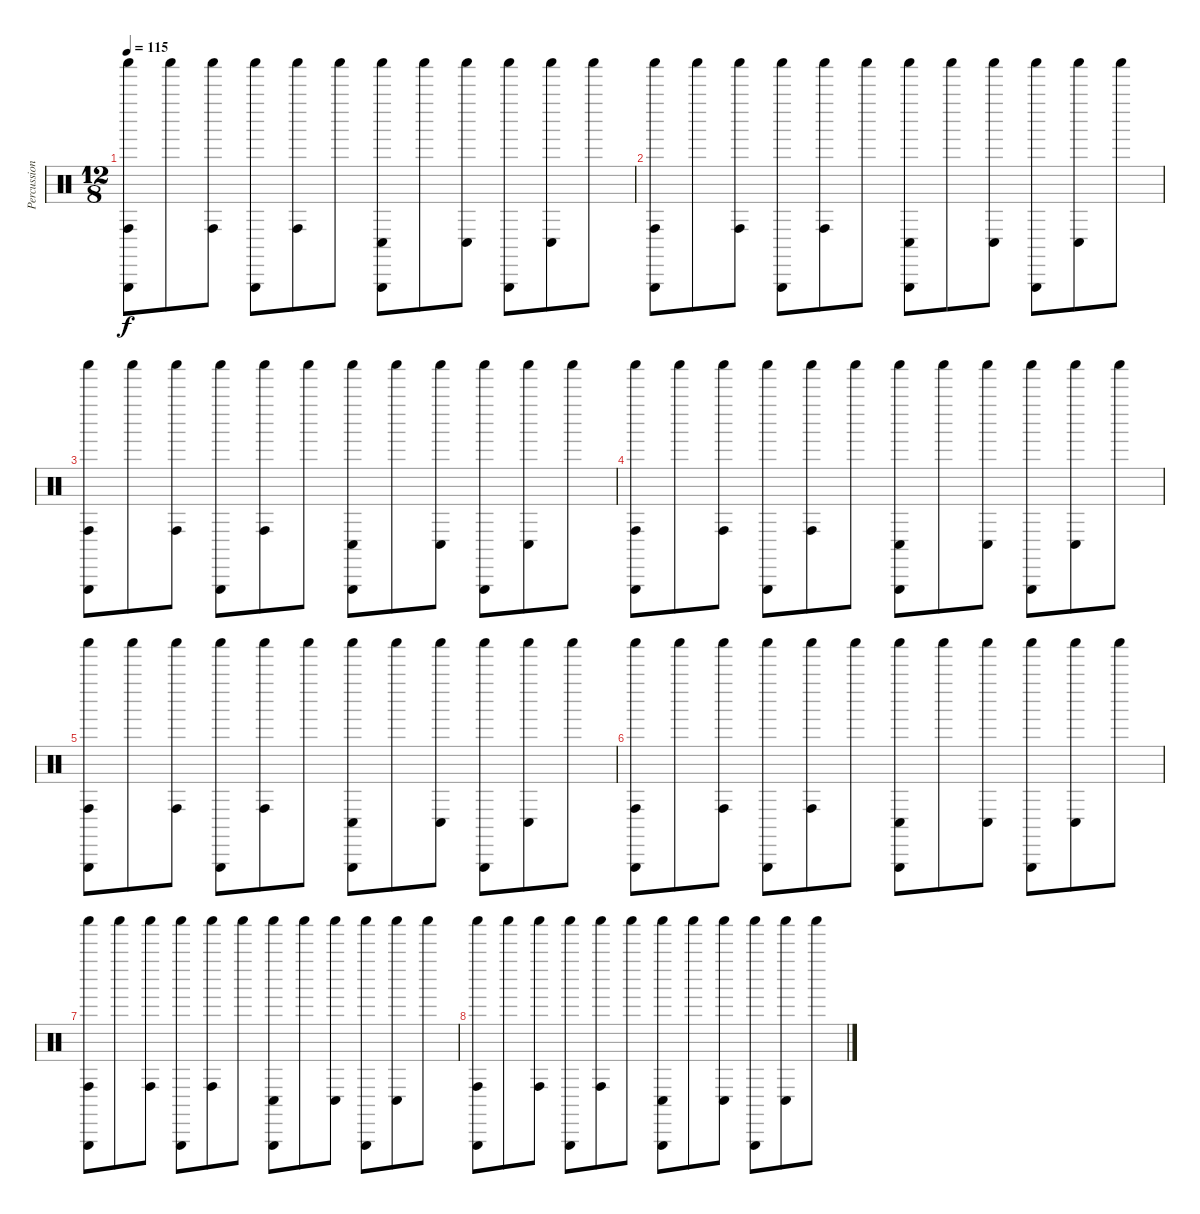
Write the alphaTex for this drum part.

\track ("Percussion" "Percussion") {instrument percussion}
\staff {score}
\articulation defaults
\ts (12 8)
\tempo 115
\clef neutral
\ks c
("Shaker (hit)" "Triangle (hit)" "Conga high (hit)").8{dy f} "Shaker (hit)".8 ("Shaker (hit)" "Conga high (hit)").8 ("Shaker (hit)" "Triangle (hit)").8 ("Shaker (hit)" "Conga high (hit)").8 "Shaker (hit)".8 ("Shaker (hit)" "Triangle (hit)" "Conga low (hit)").8 "Shaker (hit)".8 ("Shaker (hit)" "Conga low (hit)").8 ("Shaker (hit)" "Triangle (hit)").8 ("Shaker (hit)" "Conga low (hit)").8 "Shaker (hit)".8 |
("Shaker (hit)" "Triangle (hit)" "Conga high (hit)").8 "Shaker (hit)".8 ("Shaker (hit)" "Conga high (hit)").8 ("Shaker (hit)" "Triangle (hit)").8 ("Shaker (hit)" "Conga high (hit)").8 "Shaker (hit)".8 ("Shaker (hit)" "Triangle (hit)" "Conga low (hit)").8 "Shaker (hit)".8 ("Shaker (hit)" "Conga low (hit)").8 ("Shaker (hit)" "Triangle (hit)").8 ("Shaker (hit)" "Conga low (hit)").8 "Shaker (hit)".8 |
("Shaker (hit)" "Triangle (hit)" "Conga high (hit)").8 "Shaker (hit)".8 ("Shaker (hit)" "Conga high (hit)").8 ("Shaker (hit)" "Triangle (hit)").8 ("Shaker (hit)" "Conga high (hit)").8 "Shaker (hit)".8 ("Shaker (hit)" "Triangle (hit)" "Conga low (hit)").8 "Shaker (hit)".8 ("Shaker (hit)" "Conga low (hit)").8 ("Shaker (hit)" "Triangle (hit)").8 ("Shaker (hit)" "Conga low (hit)").8 "Shaker (hit)".8 |
("Shaker (hit)" "Triangle (hit)" "Conga high (hit)").8 "Shaker (hit)".8 ("Shaker (hit)" "Conga high (hit)").8 ("Shaker (hit)" "Triangle (hit)").8 ("Shaker (hit)" "Conga high (hit)").8 "Shaker (hit)".8 ("Shaker (hit)" "Triangle (hit)" "Conga low (hit)").8 "Shaker (hit)".8 ("Shaker (hit)" "Conga low (hit)").8 ("Shaker (hit)" "Triangle (hit)").8 ("Shaker (hit)" "Conga low (hit)").8 "Shaker (hit)".8 |
("Shaker (hit)" "Triangle (hit)" "Conga high (hit)").8 "Shaker (hit)".8 ("Shaker (hit)" "Conga high (hit)").8 ("Shaker (hit)" "Triangle (hit)").8 ("Shaker (hit)" "Conga high (hit)").8 "Shaker (hit)".8 ("Shaker (hit)" "Triangle (hit)" "Conga low (hit)").8 "Shaker (hit)".8 ("Shaker (hit)" "Conga low (hit)").8 ("Shaker (hit)" "Triangle (hit)").8 ("Shaker (hit)" "Conga low (hit)").8 "Shaker (hit)".8 |
("Shaker (hit)" "Triangle (hit)" "Conga high (hit)").8 "Shaker (hit)".8 ("Shaker (hit)" "Conga high (hit)").8 ("Shaker (hit)" "Triangle (hit)").8 ("Shaker (hit)" "Conga high (hit)").8 "Shaker (hit)".8 ("Shaker (hit)" "Triangle (hit)" "Conga low (hit)").8 "Shaker (hit)".8 ("Shaker (hit)" "Conga low (hit)").8 ("Shaker (hit)" "Triangle (hit)").8 ("Shaker (hit)" "Conga low (hit)").8 "Shaker (hit)".8 |
("Shaker (hit)" "Triangle (hit)" "Conga high (hit)").8 "Shaker (hit)".8 ("Shaker (hit)" "Conga high (hit)").8 ("Shaker (hit)" "Triangle (hit)").8 ("Shaker (hit)" "Conga high (hit)").8 "Shaker (hit)".8 ("Shaker (hit)" "Triangle (hit)" "Conga low (hit)").8 "Shaker (hit)".8 ("Shaker (hit)" "Conga low (hit)").8 ("Shaker (hit)" "Triangle (hit)").8 ("Shaker (hit)" "Conga low (hit)").8 "Shaker (hit)".8 |
("Shaker (hit)" "Triangle (hit)" "Conga high (hit)").8 "Shaker (hit)".8 ("Shaker (hit)" "Conga high (hit)").8 ("Shaker (hit)" "Triangle (hit)").8 ("Shaker (hit)" "Conga high (hit)").8 "Shaker (hit)".8 ("Shaker (hit)" "Triangle (hit)" "Conga low (hit)").8 "Shaker (hit)".8 ("Shaker (hit)" "Conga low (hit)").8 ("Shaker (hit)" "Triangle (hit)").8 ("Shaker (hit)" "Conga low (hit)").8 "Shaker (hit)".8
